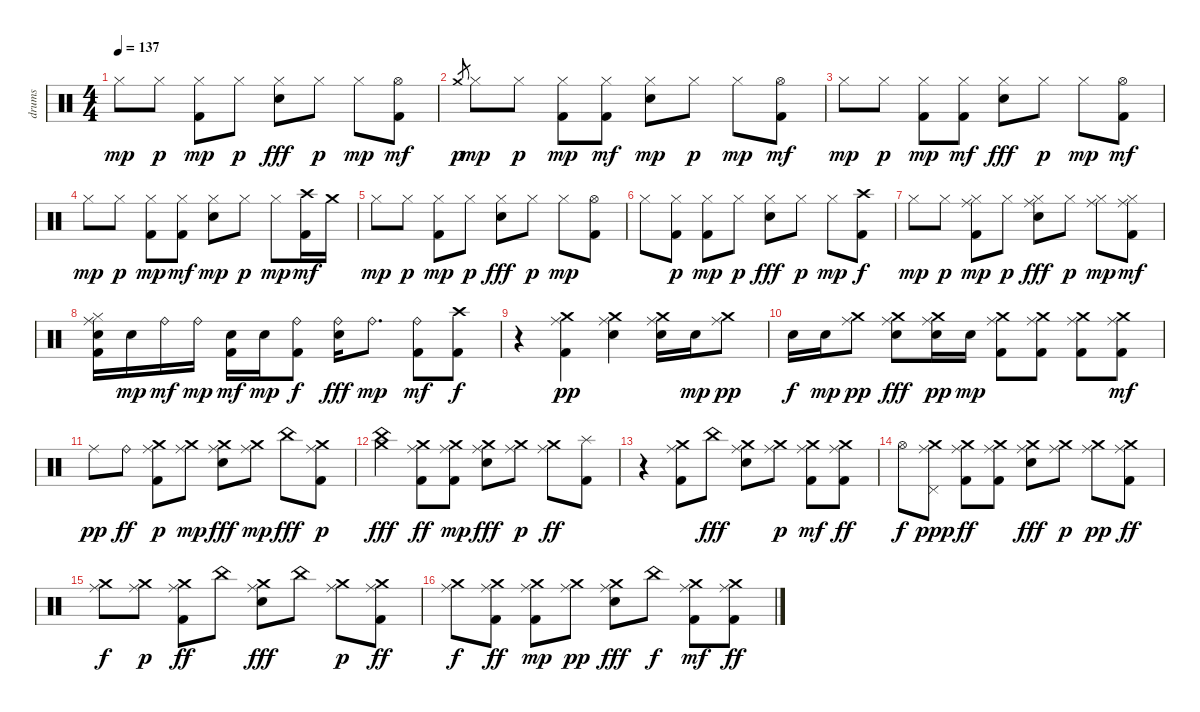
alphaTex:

\track ("drums" "drums") {instrument percussion}
\staff {score}
\articulation defaults
\ts (4 4)
\tempo 137
\clef neutral
\ks c "Hi-Hat (closed)".8{dy mp} "Hi-Hat (closed)".8{dy p}
("Kick (hit) 2" "Hi-Hat (closed)").8{dy mp} "Hi-Hat (closed)".8{dy p} ("Hi-Hat (closed)" "Electric Snare (hit)").8{dy fff} "Hi-Hat (closed)".8{dy p} "Hi-Hat (closed)".8{dy mp} ("Kick (hit) 2" "Hi-Hat (open)").8{dy mf} |
"Crash medium (hit)".8{gr dy p} "Hi-Hat (closed)".8{dy mp} "Hi-Hat (closed)".8{dy p} ("Hi-Hat (closed)" "Kick (hit) 2").8{dy mp} ("Hi-Hat (closed)" "Kick (hit) 2").8{dy mf} ("Electric Snare (hit)" "Hi-Hat (closed)").8{dy mp} "Hi-Hat (closed)".8{dy p} "Hi-Hat (closed)".8{dy mp} ("Kick (hit) 2" "Hi-Hat (open)").8{dy mf} |
"Hi-Hat (closed)".8{dy mp} "Hi-Hat (closed)".8{dy p} ("Kick (hit) 2" "Hi-Hat (closed)").8{dy mp} ("Hi-Hat (closed)" "Kick (hit) 2").8{dy mf} ("Hi-Hat (closed)" "Electric Snare (hit)").8{dy fff} "Hi-Hat (closed)".8{dy p} "Hi-Hat (closed)".8{dy mp} ("Hi-Hat (open)" "Kick (hit) 2").8{dy mf} |
"Hi-Hat (closed)".8{dy mp} "Hi-Hat (closed)".8{dy p} ("Kick (hit) 2" "Hi-Hat (closed)").8{dy mp} ("Hi-Hat (closed)" "Kick (hit) 2").8{dy mf} ("Electric Snare (hit)" "Hi-Hat (closed)").8{dy mp} "Hi-Hat (closed)".8{dy p} "Hi-Hat (closed)".8{dy mp} ("Kick (hit) 2" "Crash high (hit)").16{dy mf} "Crash medium (hit)".16 |
"Hi-Hat (closed)".8{dy mp} "Hi-Hat (closed)".8{dy p} ("Kick (hit) 2" "Hi-Hat (closed)").8{dy mp} "Hi-Hat (closed)".8{dy p} ("Hi-Hat (closed)" "Electric Snare (hit)").8{dy fff} "Hi-Hat (closed)".8{dy p} "Hi-Hat (closed)".8{dy mp} ("Hi-Hat (open)" "Kick (hit) 2").8 |
"Hi-Hat (closed)".8 ("Kick (hit) 2" "Hi-Hat (closed)").8{dy p} ("Kick (hit) 2" "Hi-Hat (closed)").8{dy mp} "Hi-Hat (closed)".8{dy p} ("Hi-Hat (closed)" "Electric Snare (hit)").8{dy fff} "Hi-Hat (closed)".8{dy p} "Hi-Hat (closed)".8{dy mp} ("Crash high (hit)" "Kick (hit) 2").8{dy f} |
"Hi-Hat (closed)".8{dy mp} "Hi-Hat (closed)".8{dy p} ("Ride (middle)" "Hi-Hat (closed)" "Kick (hit) 2").8{dy mp} "Hi-Hat (closed)".8{dy p} ("Ride (middle)" "Hi-Hat (closed)" "Electric Snare (hit)").8{dy fff} "Hi-Hat (closed)".8{dy p} ("Ride (middle)" "Hi-Hat (closed)").8{dy mp} ("Hi-Hat (closed)" "Ride (middle)" "Kick (hit) 2").8{dy mf} |
("Electric Snare (hit)" "Hi-Hat (closed)" "Ride (middle)" "Kick (hit) 2").16 "Electric Snare (hit)".16{dy mp} "Ride (bell)".16{dy mf} "Ride (bell)".16{dy mp} ("Electric Snare (hit)" "Kick (hit) 2").16{dy mf} "Electric Snare (hit)".16{dy mp} ("Ride (bell)" "Kick (hit) 2").8{dy f} ("Ride (bell)" "Electric Snare (hit)").16{dy fff} "Ride (bell)".8{d dy mp} ("Kick (hit) 2" "Ride (bell)").8{dy mf} ("Kick (hit) 2" "Crash high (hit)").8{dy f} |
r.4 ("Ride (middle)" "Crash medium (hit)" "Kick (hit) 2").4{dy pp} ("Electric Snare (hit)" "Crash medium (hit)" "Ride (middle)").4 ("Crash medium (hit)" "Ride (middle)" "Electric Snare (hit)").16 "Electric Snare (hit)".16{dy mp} ("Crash medium (hit)" "Ride (middle)").8{dy pp} |
"Electric Snare (hit)".16{dy f} "Electric Snare (hit)".16{dy mp} ("Crash medium (hit)" "Ride (middle)").8{dy pp} ("Crash medium (hit)" "Ride (middle)" "Electric Snare (hit)").8{dy fff} ("Electric Snare (hit)" "Crash medium (hit)" "Ride (middle)").16{dy pp} "Electric Snare (hit)".16{dy mp} ("Crash medium (hit)" "Ride (middle)" "Kick (hit) 2").8 ("Crash medium (hit)" "Ride (middle)" "Kick (hit) 2").8 ("Crash medium (hit)" "Ride (middle)" "Kick (hit) 2").8 ("Crash medium (hit)" "Ride (middle)" "Kick (hit) 2").8{dy mf} |
"Ride (middle)".8{dy pp} "Ride (bell)".8{dy ff} ("Kick (hit) 2" "Ride (middle)" "Crash medium (hit)").8{dy p} ("Crash medium (hit)" "Ride (middle)").8{dy mp} ("Crash medium (hit)" "Ride (middle)" "Electric Snare (hit)").8{dy fff} ("Crash medium (hit)" "Ride (middle)").8{dy mp} "China (hit)".8{dy fff} ("Ride (middle)" "Kick (hit) 2" "Crash medium (hit)").8{dy p} |
("Crash medium (hit)" "China (hit)").4{dy fff} ("Crash medium (hit)" "Kick (hit) 2" "Ride (middle)").8{dy ff} ("Crash medium (hit)" "Ride (middle)" "Kick (hit) 2").8{dy mp} ("Crash medium (hit)" "Ride (middle)" "Electric Snare (hit)").8{dy fff} ("Crash medium (hit)" "Ride (middle)").8{dy p} ("Crash medium (hit)" "Ride (middle)").8{dy ff} ("Splash (hit)" "Kick (hit) 2").8 |
r.4 ("Crash medium (hit)" "Ride (middle)" "Kick (hit) 2").8 "China (hit)".8{dy fff} ("Crash medium (hit)" "Ride (middle)" "Electric Snare (hit)").8 ("Crash medium (hit)" "Ride (middle)").8{dy p} ("Crash medium (hit)" "Ride (middle)" "Kick (hit) 2").8{dy mf} ("Crash medium (hit)" "Ride (middle)" "Kick (hit) 2").8{dy ff} |
"Hi-Hat (open)".8{dy f} ("Crash medium (hit)" "Ride (middle)" "Pedal Hi-Hat (hit)").8{dy ppp} ("Crash medium (hit)" "Ride (middle)" "Kick (hit) 2").8{dy ff} ("Crash medium (hit)" "Ride (middle)" "Kick (hit) 2").8 ("Crash medium (hit)" "Ride (middle)" "Electric Snare (hit)").8{dy fff} ("Crash medium (hit)" "Ride (middle)").8{dy p} ("Ride (middle)" "Crash medium (hit)").8{dy pp} ("Crash medium (hit)" "Ride (middle)" "Kick (hit) 2").8{dy ff} |
("Crash medium (hit)" "Ride (middle)").8{dy f} ("Crash medium (hit)" "Ride (middle)").8{dy p} ("Crash medium (hit)" "Ride (middle)" "Kick (hit) 2").8{dy ff} "China (hit)".8 ("Crash medium (hit)" "Ride (middle)" "Electric Snare (hit)").8{dy fff} "China (hit)".8 ("Crash medium (hit)" "Ride (middle)").8{dy p} ("Crash medium (hit)" "Ride (middle)" "Kick (hit) 2").8{dy ff} |
("Crash medium (hit)" "Ride (middle)").8{dy f} ("Crash medium (hit)" "Ride (middle)" "Kick (hit) 2").8{dy ff} ("Ride (middle)" "Kick (hit) 2" "Crash medium (hit)").8{dy mp} ("Ride (middle)" "Crash medium (hit)").8{dy pp} ("Crash medium (hit)" "Ride (middle)" "Electric Snare (hit)").8{dy fff} "China (hit)".8{dy f} ("Crash medium (hit)" "Ride (middle)" "Kick (hit) 2").8{dy mf} ("Crash medium (hit)" "Ride (middle)" "Kick (hit) 2").8{dy ff}
